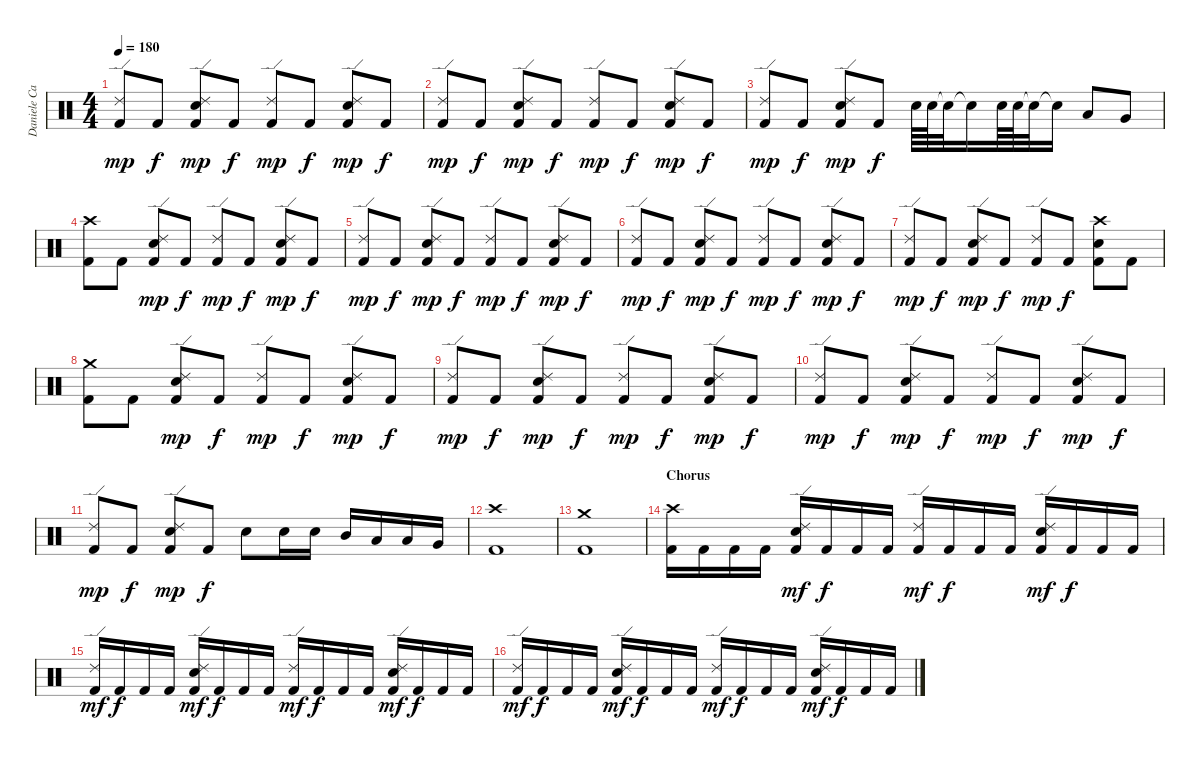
\track ("Daniele Carbonera" "Daniele Ca") {instrument percussion}
\staff {score}
\articulation defaults
\ts (4 4)
\tempo 180
\clef neutral
\ks c
("Kick (hit) 2" "Ride (edge) 2").8{dy mp} "Kick (hit) 2".8{dy f} ("Kick (hit) 2" "Ride (edge) 2" "Snare (hit) 2").8{dy mp} "Kick (hit) 2".8{dy f} ("Kick (hit) 2" "Ride (edge) 2").8{dy mp} "Kick (hit) 2".8{dy f} ("Kick (hit) 2" "Ride (edge) 2" "Snare (hit) 2").8{dy mp} "Kick (hit) 2".8{dy f} |
("Kick (hit) 2" "Ride (edge) 2").8{dy mp} "Kick (hit) 2".8{dy f} ("Kick (hit) 2" "Ride (edge) 2" "Snare (hit) 2").8{dy mp} "Kick (hit) 2".8{dy f} ("Kick (hit) 2" "Ride (edge) 2").8{dy mp} "Kick (hit) 2".8{dy f} ("Kick (hit) 2" "Ride (edge) 2" "Snare (hit) 2").8{dy mp} "Kick (hit) 2".8{dy f} |
("Kick (hit) 2" "Ride (edge) 2").8{dy mp} "Kick (hit) 2".8{dy f} ("Kick (hit) 2" "Ride (edge) 2" "Snare (hit) 2").8{dy mp} "Kick (hit) 2".8{dy f} "Snare (hit) 2".64 "Snare (hit) 2".64 "Snare (hit)"{t}.32 "Snare (hit)"{t}.16 "Snare (hit) 2".64 "Snare (hit) 2".64 "Snare (hit)"{t}.32 "Snare (hit)"{t}.16 "Low Tom (hit)".8 "Very Low Tom (hit)".8 |
("Kick (hit) 2" "Crash high (hit)").8 "Kick (hit) 2".8 ("Kick (hit) 2" "Ride (edge) 2" "Snare (hit) 2").8{dy mp} "Kick (hit) 2".8{dy f} ("Kick (hit) 2" "Ride (edge) 2").8{dy mp} "Kick (hit) 2".8{dy f} ("Kick (hit) 2" "Ride (edge) 2" "Snare (hit) 2").8{dy mp} "Kick (hit) 2".8{dy f} |
("Kick (hit) 2" "Ride (edge) 2").8{dy mp} "Kick (hit) 2".8{dy f} ("Kick (hit) 2" "Ride (edge) 2" "Snare (hit) 2").8{dy mp} "Kick (hit) 2".8{dy f} ("Kick (hit) 2" "Ride (edge) 2").8{dy mp} "Kick (hit) 2".8{dy f} ("Kick (hit) 2" "Ride (edge) 2" "Snare (hit) 2").8{dy mp} "Kick (hit) 2".8{dy f} |
("Kick (hit) 2" "Ride (edge) 2").8{dy mp} "Kick (hit) 2".8{dy f} ("Kick (hit) 2" "Ride (edge) 2" "Snare (hit) 2").8{dy mp} "Kick (hit) 2".8{dy f} ("Kick (hit) 2" "Ride (edge) 2").8{dy mp} "Kick (hit) 2".8{dy f} ("Kick (hit) 2" "Ride (edge) 2" "Snare (hit) 2").8{dy mp} "Kick (hit) 2".8{dy f} |
("Kick (hit) 2" "Ride (edge) 2").8{dy mp} "Kick (hit) 2".8{dy f} ("Kick (hit) 2" "Ride (edge) 2" "Snare (hit) 2").8{dy mp} "Kick (hit) 2".8{dy f} ("Kick (hit) 2" "Ride (edge) 2").8{dy mp} "Kick (hit) 2".8{dy f} ("Kick (hit) 2" "Crash high (hit)" "Snare (hit) 2").8 "Kick (hit) 2".8 |
("Kick (hit) 2" "Crash medium (hit)").8 "Kick (hit) 2".8 ("Kick (hit) 2" "Ride (edge) 2" "Snare (hit) 2").8{dy mp} "Kick (hit) 2".8{dy f} ("Kick (hit) 2" "Ride (edge) 2").8{dy mp} "Kick (hit) 2".8{dy f} ("Kick (hit) 2" "Ride (edge) 2" "Snare (hit) 2").8{dy mp} "Kick (hit) 2".8{dy f} |
("Kick (hit) 2" "Ride (edge) 2").8{dy mp} "Kick (hit) 2".8{dy f} ("Kick (hit) 2" "Ride (edge) 2" "Snare (hit) 2").8{dy mp} "Kick (hit) 2".8{dy f} ("Kick (hit) 2" "Ride (edge) 2").8{dy mp} "Kick (hit) 2".8{dy f} ("Kick (hit) 2" "Ride (edge) 2" "Snare (hit) 2").8{dy mp} "Kick (hit) 2".8{dy f} |
("Kick (hit) 2" "Ride (edge) 2").8{dy mp} "Kick (hit) 2".8{dy f} ("Kick (hit) 2" "Ride (edge) 2" "Snare (hit) 2").8{dy mp} "Kick (hit) 2".8{dy f} ("Kick (hit) 2" "Ride (edge) 2").8{dy mp} "Kick (hit) 2".8{dy f} ("Kick (hit) 2" "Ride (edge) 2" "Snare (hit) 2").8{dy mp} "Kick (hit) 2".8{dy f} |
("Kick (hit) 2" "Ride (edge) 2").8{dy mp} "Kick (hit) 2".8{dy f} ("Kick (hit) 2" "Ride (edge) 2" "Snare (hit) 2").8{dy mp} "Kick (hit) 2".8{dy f} "Snare (hit) 2".8 "Snare (hit) 2".16 "Snare (hit) 2".16 "Mid Tom (hit)".16 "Low Tom (hit)".16 "Low Tom (hit)".16 "Very Low Tom (hit)".16 |
("Kick (hit) 2" "Crash high (hit)").1 |
("Kick (hit) 2" "Crash medium (hit)").1 |
\section ("" "Chorus")
("Kick (hit) 2" "Crash high (hit)").16 "Kick (hit) 2".16 "Kick (hit) 2".16 "Kick (hit) 2".16 ("Kick (hit) 2" "Ride (edge) 2" "Snare (hit) 2").16{dy mf} "Kick (hit) 2".16{dy f} "Kick (hit) 2".16 "Kick (hit) 2".16 ("Kick (hit) 2" "Ride (edge) 2").16{dy mf} "Kick (hit) 2".16{dy f} "Kick (hit) 2".16 "Kick (hit) 2".16 ("Kick (hit) 2" "Ride (edge) 2" "Snare (hit) 2").16{dy mf} "Kick (hit) 2".16{dy f} "Kick (hit) 2".16 "Kick (hit) 2".16 |
("Kick (hit) 2" "Ride (edge) 2").16{dy mf} "Kick (hit) 2".16{dy f} "Kick (hit) 2".16 "Kick (hit) 2".16 ("Kick (hit) 2" "Ride (edge) 2" "Snare (hit) 2").16{dy mf} "Kick (hit) 2".16{dy f} "Kick (hit) 2".16 "Kick (hit) 2".16 ("Kick (hit) 2" "Ride (edge) 2").16{dy mf} "Kick (hit) 2".16{dy f} "Kick (hit) 2".16 "Kick (hit) 2".16 ("Kick (hit) 2" "Ride (edge) 2" "Snare (hit) 2").16{dy mf} "Kick (hit) 2".16{dy f} "Kick (hit) 2".16 "Kick (hit) 2".16 |
("Kick (hit) 2" "Ride (edge) 2").16{dy mf} "Kick (hit) 2".16{dy f} "Kick (hit) 2".16 "Kick (hit) 2".16 ("Kick (hit) 2" "Ride (edge) 2" "Snare (hit) 2").16{dy mf} "Kick (hit) 2".16{dy f} "Kick (hit) 2".16 "Kick (hit) 2".16 ("Kick (hit) 2" "Ride (edge) 2").16{dy mf} "Kick (hit) 2".16{dy f} "Kick (hit) 2".16 "Kick (hit) 2".16 ("Kick (hit) 2" "Ride (edge) 2" "Snare (hit) 2").16{dy mf} "Kick (hit) 2".16{dy f} "Kick (hit) 2".16 "Kick (hit) 2".16
